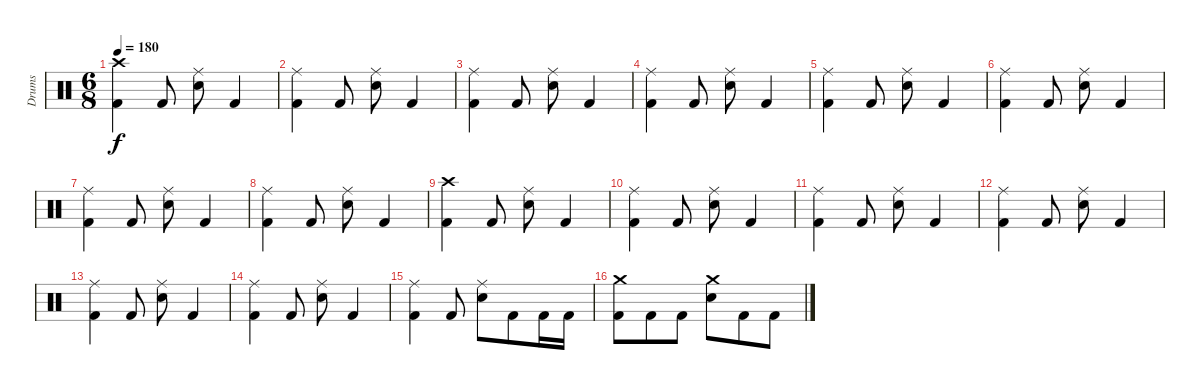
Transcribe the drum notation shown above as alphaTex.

\track ("Drums" "Drums") {instrument percussion}
\staff {score}
\articulation defaults
\ts (6 8)
\tempo 180
\clef neutral
\ks c
("Crash high (hit)" "Kick (hit) 2").4{dy f} "Kick (hit) 2".8 ("Ride (middle)" "Electric Snare (hit)").8 "Kick (hit) 2".4 |
("Ride (middle)" "Kick (hit) 2").4 "Kick (hit) 2".8 ("Ride (middle)" "Electric Snare (hit)").8 "Kick (hit) 2".4 |
("Ride (middle)" "Kick (hit) 2").4 "Kick (hit) 2".8 ("Ride (middle)" "Electric Snare (hit)").8 "Kick (hit) 2".4 |
("Ride (middle)" "Kick (hit) 2").4 "Kick (hit) 2".8 ("Ride (middle)" "Electric Snare (hit)").8 "Kick (hit) 2".4 |
("Ride (middle)" "Kick (hit) 2").4 "Kick (hit) 2".8 ("Ride (middle)" "Electric Snare (hit)").8 "Kick (hit) 2".4 |
("Ride (middle)" "Kick (hit) 2").4 "Kick (hit) 2".8 ("Ride (middle)" "Electric Snare (hit)").8 "Kick (hit) 2".4 |
("Ride (middle)" "Kick (hit) 2").4 "Kick (hit) 2".8 ("Ride (middle)" "Electric Snare (hit)").8 "Kick (hit) 2".4 |
("Ride (middle)" "Kick (hit) 2").4 "Kick (hit) 2".8 ("Ride (middle)" "Electric Snare (hit)").8 "Kick (hit) 2".4 |
("Crash high (hit)" "Kick (hit) 2").4 "Kick (hit) 2".8 ("Ride (middle)" "Electric Snare (hit)").8 "Kick (hit) 2".4 |
("Ride (middle)" "Kick (hit) 2").4 "Kick (hit) 2".8 ("Ride (middle)" "Electric Snare (hit)").8 "Kick (hit) 2".4 |
("Ride (middle)" "Kick (hit) 2").4 "Kick (hit) 2".8 ("Ride (middle)" "Electric Snare (hit)").8 "Kick (hit) 2".4 |
("Ride (middle)" "Kick (hit) 2").4 "Kick (hit) 2".8 ("Ride (middle)" "Electric Snare (hit)").8 "Kick (hit) 2".4 |
("Ride (middle)" "Kick (hit) 2").4 "Kick (hit) 2".8 ("Ride (middle)" "Electric Snare (hit)").8 "Kick (hit) 2".4 |
("Ride (middle)" "Kick (hit) 2").4 "Kick (hit) 2".8 ("Ride (middle)" "Electric Snare (hit)").8 "Kick (hit) 2".4 |
("Ride (middle)" "Kick (hit) 2").4 "Kick (hit) 2".8 ("Ride (middle)" "Electric Snare (hit)").8 "Kick (hit) 2".8 "Kick (hit) 2".16 "Kick (hit) 2".16 |
("Crash medium (hit)" "Kick (hit) 2").8 "Kick (hit) 2".8 "Kick (hit) 2".8 ("Crash medium (hit)" "Electric Snare (hit)").8 "Kick (hit) 2".8 "Kick (hit) 2".8
